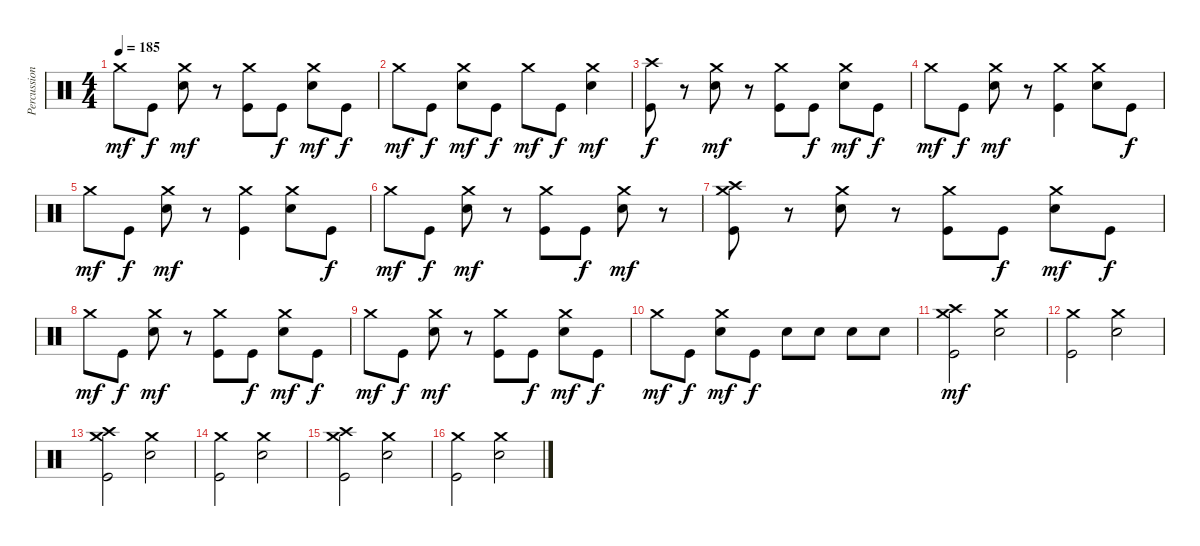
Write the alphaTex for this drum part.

\track ("Percussions" "Percussion") {instrument percussion}
\staff {score}
\articulation defaults
\ts (4 4)
\tempo 185
\clef neutral
\ks c "Crash medium (hit)".8{dy mf} "Kick (hit)".8{dy f}
("Electric Snare (hit)" "Crash medium (hit)").8{dy mf} r.8 ("Kick (hit)" "Crash medium (hit)").8 "Kick (hit)".8{dy f} ("Electric Snare (hit)" "Crash medium (hit)").8{dy mf} "Kick (hit)".8{dy f} |
"Crash medium (hit)".8{dy mf} "Kick (hit)".8{dy f} ("Electric Snare (hit)" "Crash medium (hit)").8{dy mf} "Kick (hit)".8{dy f} "Crash medium (hit)".8{dy mf} "Kick (hit)".8{dy f} ("Electric Snare (hit)" "Crash medium (hit)").4{dy mf} |
("Kick (hit)" "Crash high (hit)").8{dy f} r.8 ("Electric Snare (hit)" "Crash medium (hit)").8{dy mf} r.8 ("Kick (hit)" "Crash medium (hit)").8 "Kick (hit)".8{dy f} ("Electric Snare (hit)" "Crash medium (hit)").8{dy mf} "Kick (hit)".8{dy f} |
"Crash medium (hit)".8{dy mf} "Kick (hit)".8{dy f} ("Electric Snare (hit)" "Crash medium (hit)").8{dy mf} r.8 ("Kick (hit)" "Crash medium (hit)").4 ("Electric Snare (hit)" "Crash medium (hit)").8 "Kick (hit)".8{dy f} |
"Crash medium (hit)".8{dy mf} "Kick (hit)".8{dy f} ("Electric Snare (hit)" "Crash medium (hit)").8{dy mf} r.8 ("Kick (hit)" "Crash medium (hit)").4 ("Electric Snare (hit)" "Crash medium (hit)").8 "Kick (hit)".8{dy f} |
"Crash medium (hit)".8{dy mf} "Kick (hit)".8{dy f} ("Electric Snare (hit)" "Crash medium (hit)").8{dy mf} r.8 ("Kick (hit)" "Crash medium (hit)").8 "Kick (hit)".8{dy f} ("Electric Snare (hit)" "Crash medium (hit)").8{dy mf} r.8 |
("Kick (hit)" "Crash medium (hit)" "Crash high (hit)").8 r.8 ("Electric Snare (hit)" "Crash medium (hit)").8 r.8 ("Kick (hit)" "Crash medium (hit)").8 "Kick (hit)".8{dy f} ("Electric Snare (hit)" "Crash medium (hit)").8{dy mf} "Kick (hit)".8{dy f} |
"Crash medium (hit)".8{dy mf} "Kick (hit)".8{dy f} ("Electric Snare (hit)" "Crash medium (hit)").8{dy mf} r.8 ("Kick (hit)" "Crash medium (hit)").8 "Kick (hit)".8{dy f} ("Electric Snare (hit)" "Crash medium (hit)").8{dy mf} "Kick (hit)".8{dy f} |
"Crash medium (hit)".8{dy mf} "Kick (hit)".8{dy f} ("Electric Snare (hit)" "Crash medium (hit)").8{dy mf} r.8 ("Kick (hit)" "Crash medium (hit)").8 "Kick (hit)".8{dy f} ("Electric Snare (hit)" "Crash medium (hit)").8{dy mf} "Kick (hit)".8{dy f} |
"Crash medium (hit)".8{dy mf} "Kick (hit)".8{dy f} ("Electric Snare (hit)" "Crash medium (hit)").8{dy mf} "Kick (hit)".8{dy f} "Electric Snare (hit)".8 "Electric Snare (hit)".8 "Electric Snare (hit)".8 "Electric Snare (hit)".8 |
("Kick (hit)" "Crash medium (hit)" "Crash high (hit)").2{dy mf} ("Electric Snare (hit)" "Crash medium (hit)").2 |
("Kick (hit)" "Crash medium (hit)").2 ("Electric Snare (hit)" "Crash medium (hit)").2 |
("Kick (hit)" "Crash medium (hit)" "Crash high (hit)").2 ("Electric Snare (hit)" "Crash medium (hit)").2 |
("Kick (hit)" "Crash medium (hit)").2 ("Electric Snare (hit)" "Crash medium (hit)").2 |
("Kick (hit)" "Crash medium (hit)" "Crash high (hit)").2 ("Electric Snare (hit)" "Crash medium (hit)").2 |
("Kick (hit)" "Crash medium (hit)").2 ("Electric Snare (hit)" "Crash medium (hit)").2
